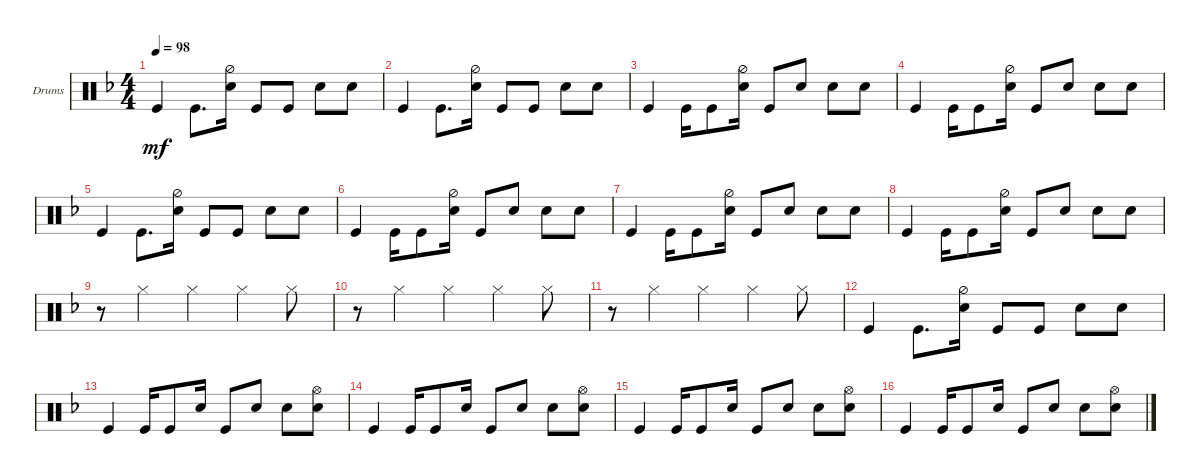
\defaultSystemsLayout 4
\bracketExtendMode groupsimilarinstruments
\firstSystemTrackNameOrientation horizontal
\otherSystemsTrackNameOrientation horizontal
\track ("Drumkit" "Drums") {instrument percussion}
\staff {score}
\articulation defaults
\ts (4 4)
\tempo 98
\clef neutral
\scale
0.333333
\ks dminor "Kick (hit)".4{dy mf} "Kick (hit)".8{d}
("Snare (hit) 2" "Hi-Hat (half)").16 "Kick (hit)".8 "Kick (hit)".8 "Snare (hit) 2".8 "Snare (hit) 2".8 |
\scale
0.333333 "Kick (hit)".4 "Kick (hit)".8{d} ("Snare (hit) 2" "Hi-Hat (half)").16 "Kick (hit)".8 "Kick (hit)".8 "Snare (hit) 2".8 "Snare (hit) 2".8 |
\scale
0.333333 "Kick (hit)".4 "Kick (hit)".16 "Kick (hit)".8 ("Snare (hit) 2" "Hi-Hat (half)").16 "Kick (hit)".8 "Snare (hit) 2".8 "Snare (hit) 2".8 "Snare (hit) 2".8 |
\scale
0.333333 "Kick (hit)".4 "Kick (hit)".16 "Kick (hit)".8 ("Snare (hit) 2" "Hi-Hat (half)").16 "Kick (hit)".8 "Snare (hit) 2".8 "Snare (hit) 2".8 "Snare (hit) 2".8 |
\scale
0.333333 "Kick (hit)".4 "Kick (hit)".8{d} ("Snare (hit) 2" "Hi-Hat (half)").16 "Kick (hit)".8 "Kick (hit)".8 "Snare (hit) 2".8 "Snare (hit) 2".8 |
\scale
0.333333 "Kick (hit)".4 "Kick (hit)".16 "Kick (hit)".8 ("Snare (hit) 2" "Hi-Hat (half)").16 "Kick (hit)".8 "Snare (hit) 2".8 "Snare (hit) 2".8 "Snare (hit) 2".8 |
\scale
0.333333 "Kick (hit)".4 "Kick (hit)".16 "Kick (hit)".8 ("Snare (hit) 2" "Hi-Hat (half)").16 "Kick (hit)".8 "Snare (hit) 2".8 "Snare (hit) 2".8 "Snare (hit) 2".8 |
\scale
0.333333 "Kick (hit)".4 "Kick (hit)".16 "Kick (hit)".8 ("Snare (hit) 2" "Hi-Hat (half)").16 "Kick (hit)".8 "Snare (hit) 2".8 "Snare (hit) 2".8 "Snare (hit) 2".8 |
\scale
0.333333 r.8 "Hi-Hat (closed)".4 "Hi-Hat (closed)".4 "Hi-Hat (closed)".4 "Hi-Hat (closed)".8 |
\scale
0.333333 r.8 "Hi-Hat (closed)".4 "Hi-Hat (closed)".4 "Hi-Hat (closed)".4 "Hi-Hat (closed)".8 |
\scale
0.333333 r.8 "Hi-Hat (closed)".4 "Hi-Hat (closed)".4 "Hi-Hat (closed)".4 "Hi-Hat (closed)".8 |
\scale
0.333333 "Kick (hit)".4 "Kick (hit)".8{d} ("Snare (hit) 2" "Hi-Hat (half)").16 "Kick (hit)".8 "Kick (hit)".8 "Snare (hit) 2".8 "Snare (hit) 2".8 |
\scale
0.333333 "Kick (hit)".4 "Kick (hit)".16 "Kick (hit)".8 "Snare (hit) 2".16 "Kick (hit)".8 "Snare (hit) 2".8 "Snare (hit) 2".8 ("Snare (hit) 2" "Hi-Hat (open)").8 |
\scale
0.333333 "Kick (hit)".4 "Kick (hit)".16 "Kick (hit)".8 "Snare (hit) 2".16 "Kick (hit)".8 "Snare (hit) 2".8 "Snare (hit) 2".8 ("Snare (hit) 2" "Hi-Hat (open)").8 |
\scale
0.333333 "Kick (hit)".4 "Kick (hit)".16 "Kick (hit)".8 "Snare (hit) 2".16 "Kick (hit)".8 "Snare (hit) 2".8 "Snare (hit) 2".8 ("Snare (hit) 2" "Hi-Hat (open)").8 |
\scale
0.333333 "Kick (hit)".4 "Kick (hit)".16 "Kick (hit)".8 "Snare (hit) 2".16 "Kick (hit)".8 "Snare (hit) 2".8 "Snare (hit) 2".8 ("Snare (hit) 2" "Hi-Hat (open)").8
